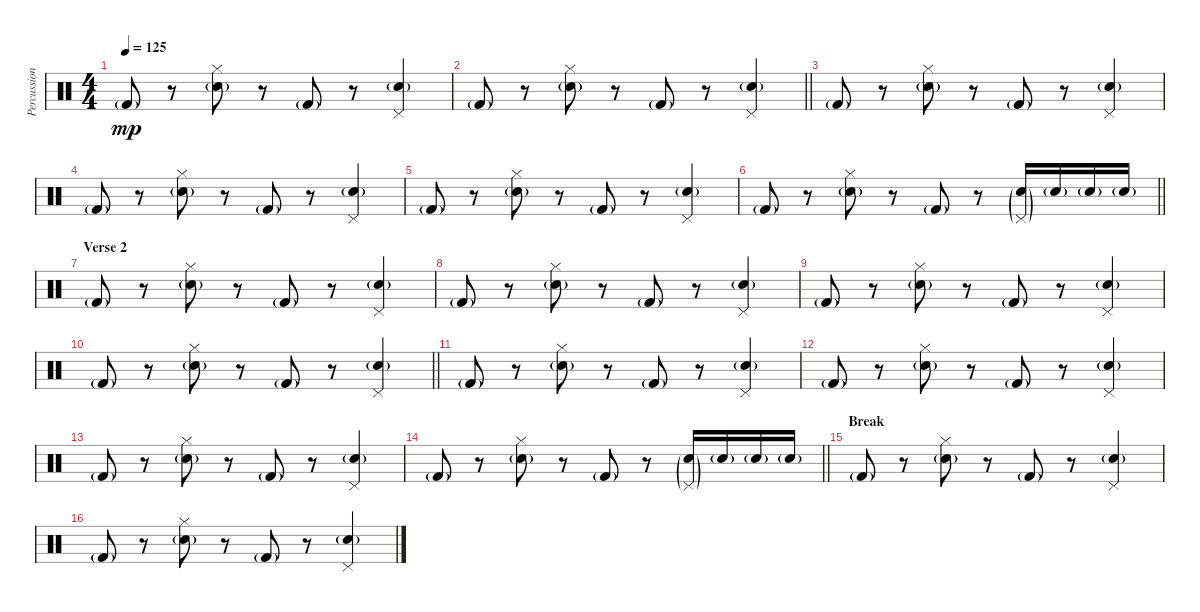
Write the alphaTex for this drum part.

\track ("Percussion" "Percussion") {instrument percussion}
\staff {score}
\articulation defaults
\ts (4 4)
\tempo 125
\clef neutral
\ks c "Kick (hit) 2"{g}.8{dy mp}
r.8 ("Electric Snare (hit)"{g} "Hi-Hat (closed)").8 r.8 "Kick (hit) 2"{g}.8 r.8 ("Electric Snare (hit)"{g} "Pedal Hi-Hat (hit)").4 |
\barLineRight lightlight "Kick (hit) 2"{g}.8
r.8 ("Electric Snare (hit)"{g} "Hi-Hat (closed)").8 r.8 "Kick (hit) 2"{g}.8 r.8 ("Electric Snare (hit)"{g} "Pedal Hi-Hat (hit)").4 |
"Kick (hit) 2"{g}.8 r.8 ("Electric Snare (hit)"{g} "Hi-Hat (closed)").8 r.8 "Kick (hit) 2"{g}.8 r.8 ("Electric Snare (hit)"{g} "Pedal Hi-Hat (hit)").4 |
"Kick (hit) 2"{g}.8 r.8 ("Electric Snare (hit)"{g} "Hi-Hat (closed)").8 r.8 "Kick (hit) 2"{g}.8 r.8 ("Electric Snare (hit)"{g} "Pedal Hi-Hat (hit)").4 |
"Kick (hit) 2"{g}.8 r.8 ("Electric Snare (hit)"{g} "Hi-Hat (closed)").8 r.8 "Kick (hit) 2"{g}.8 r.8 ("Electric Snare (hit)"{g} "Pedal Hi-Hat (hit)").4 |
\barLineRight lightlight "Kick (hit) 2"{g}.8
r.8 ("Electric Snare (hit)"{g} "Hi-Hat (closed)").8 r.8 "Kick (hit) 2"{g}.8 r.8 ("Electric Snare (hit)"{g} "Pedal Hi-Hat (hit)"{g}).16 "Electric Snare (hit)"{g}.16 "Electric Snare (hit)"{g}.16 "Electric Snare (hit)"{g}.16 |
\section ("" "Verse 2")
"Kick (hit) 2"{g}.8 r.8 ("Electric Snare (hit)"{g} "Hi-Hat (closed)").8 r.8 "Kick (hit) 2"{g}.8 r.8 ("Electric Snare (hit)"{g} "Pedal Hi-Hat (hit)").4 |
"Kick (hit) 2"{g}.8 r.8 ("Electric Snare (hit)"{g} "Hi-Hat (closed)").8 r.8 "Kick (hit) 2"{g}.8 r.8 ("Electric Snare (hit)"{g} "Pedal Hi-Hat (hit)").4 |
"Kick (hit) 2"{g}.8 r.8 ("Electric Snare (hit)"{g} "Hi-Hat (closed)").8 r.8 "Kick (hit) 2"{g}.8 r.8 ("Electric Snare (hit)"{g} "Pedal Hi-Hat (hit)").4 |
\barLineRight lightlight "Kick (hit) 2"{g}.8
r.8 ("Electric Snare (hit)"{g} "Hi-Hat (closed)").8 r.8 "Kick (hit) 2"{g}.8 r.8 ("Electric Snare (hit)"{g} "Pedal Hi-Hat (hit)").4 |
"Kick (hit) 2"{g}.8 r.8 ("Electric Snare (hit)"{g} "Hi-Hat (closed)").8 r.8 "Kick (hit) 2"{g}.8 r.8 ("Electric Snare (hit)"{g} "Pedal Hi-Hat (hit)").4 |
"Kick (hit) 2"{g}.8 r.8 ("Electric Snare (hit)"{g} "Hi-Hat (closed)").8 r.8 "Kick (hit) 2"{g}.8 r.8 ("Electric Snare (hit)"{g} "Pedal Hi-Hat (hit)").4 |
"Kick (hit) 2"{g}.8 r.8 ("Electric Snare (hit)"{g} "Hi-Hat (closed)").8 r.8 "Kick (hit) 2"{g}.8 r.8 ("Electric Snare (hit)"{g} "Pedal Hi-Hat (hit)").4 |
\barLineRight lightlight "Kick (hit) 2"{g}.8
r.8 ("Electric Snare (hit)"{g} "Hi-Hat (closed)").8 r.8 "Kick (hit) 2"{g}.8 r.8 ("Electric Snare (hit)"{g} "Pedal Hi-Hat (hit)"{g}).16 "Electric Snare (hit)"{g}.16 "Electric Snare (hit)"{g}.16 "Electric Snare (hit)"{g}.16 |
\section ("" "Break")
"Kick (hit) 2"{g}.8 r.8 ("Electric Snare (hit)"{g} "Hi-Hat (closed)").8 r.8 "Kick (hit) 2"{g}.8 r.8 ("Electric Snare (hit)"{g} "Pedal Hi-Hat (hit)").4 |
"Kick (hit) 2"{g}.8 r.8 ("Electric Snare (hit)"{g} "Hi-Hat (closed)").8 r.8 "Kick (hit) 2"{g}.8 r.8 ("Electric Snare (hit)"{g} "Pedal Hi-Hat (hit)").4
